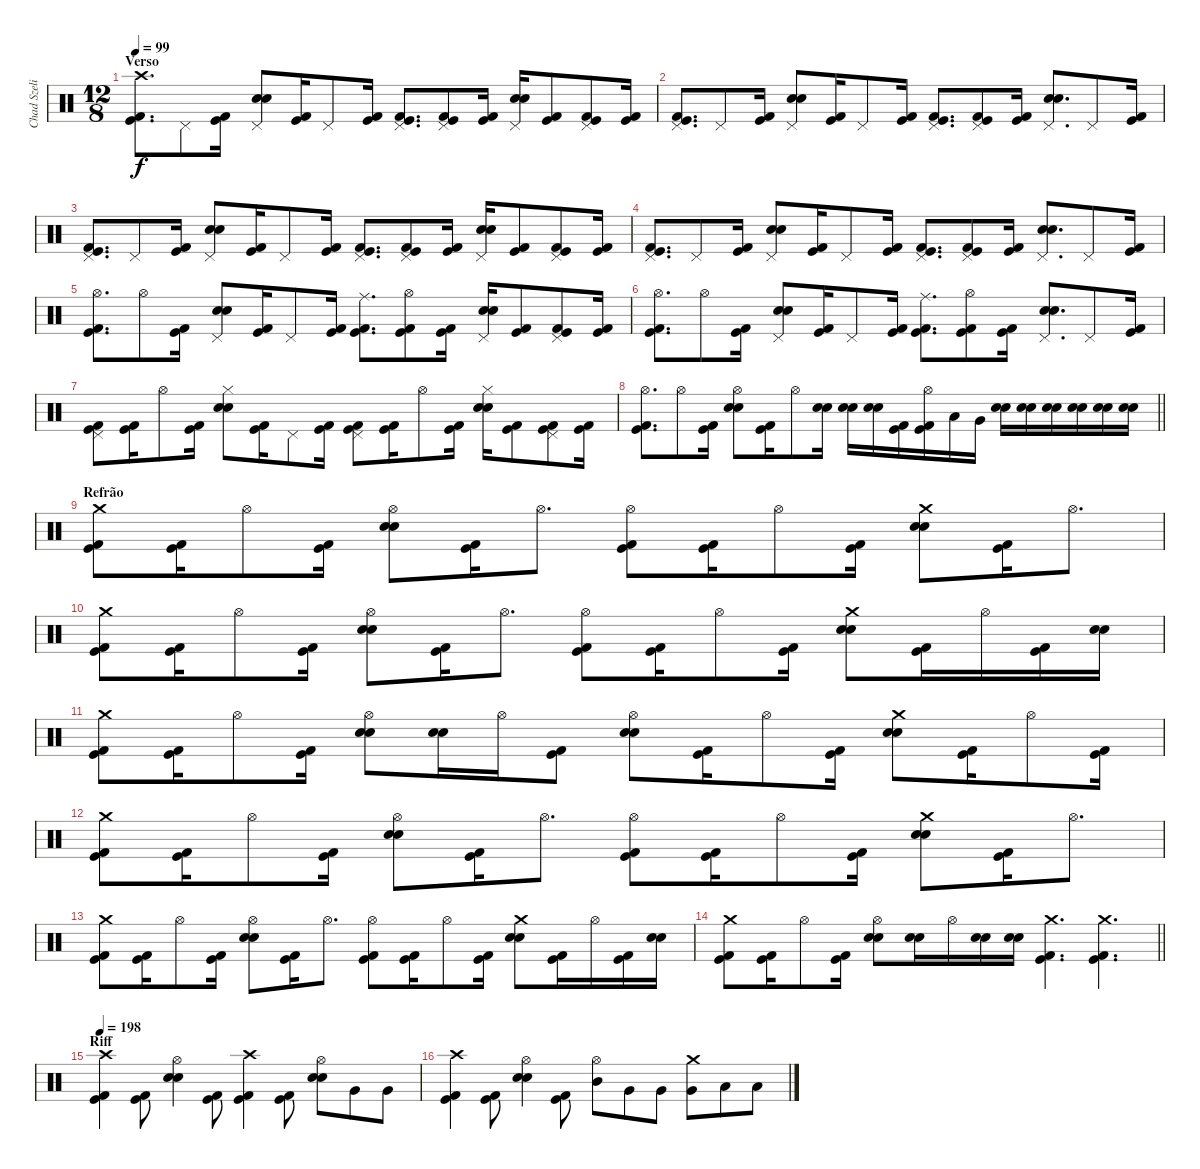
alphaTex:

\track ("Chad Szeliga" "Chad Szeli") {instrument percussion}
\staff {score}
\articulation defaults
\ts (12 8)
\section ("" "Verso")
\tempo 99
\clef neutral
\ks c
("Crash high (hit)" "Kick (hit) 2" "Kick (hit)").8{d dy f} "Pedal Hi-Hat (hit)".8 ("Kick (hit) 2" "Kick (hit)").16 ("Snare (hit) 2" "Snare (hit) 2" "Pedal Hi-Hat (hit)").8 ("Kick (hit) 2" "Kick (hit)").16 "Pedal Hi-Hat (hit)".8 ("Kick (hit) 2" "Kick (hit)").16 ("Kick (hit) 2" "Kick (hit)" "Pedal Hi-Hat (hit)").8{d} ("Kick (hit) 2" "Kick (hit)" "Pedal Hi-Hat (hit)").8 ("Kick (hit) 2" "Kick (hit)").16 ("Snare (hit) 2" "Snare (hit) 2" "Pedal Hi-Hat (hit)").16 ("Kick (hit) 2" "Kick (hit)").8 ("Kick (hit) 2" "Kick (hit)" "Pedal Hi-Hat (hit)").8 ("Kick (hit) 2" "Kick (hit)").16 |
("Kick (hit) 2" "Kick (hit)" "Pedal Hi-Hat (hit)").8{d} "Pedal Hi-Hat (hit)".8 ("Kick (hit) 2" "Kick (hit)").16 ("Snare (hit) 2" "Snare (hit) 2" "Pedal Hi-Hat (hit)").8 ("Kick (hit) 2" "Kick (hit)").16 "Pedal Hi-Hat (hit)".8 ("Kick (hit) 2" "Kick (hit)").16 ("Kick (hit) 2" "Kick (hit)" "Pedal Hi-Hat (hit)").8{d} ("Kick (hit) 2" "Kick (hit)" "Pedal Hi-Hat (hit)").8 ("Kick (hit) 2" "Kick (hit)").16 ("Snare (hit) 2" "Snare (hit) 2" "Pedal Hi-Hat (hit)").8{d} "Pedal Hi-Hat (hit)".8 ("Kick (hit) 2" "Kick (hit)").16 |
("Kick (hit) 2" "Kick (hit)" "Pedal Hi-Hat (hit)").8{d} "Pedal Hi-Hat (hit)".8 ("Kick (hit) 2" "Kick (hit)").16 ("Snare (hit) 2" "Snare (hit) 2" "Pedal Hi-Hat (hit)").8 ("Kick (hit) 2" "Kick (hit)").16 "Pedal Hi-Hat (hit)".8 ("Kick (hit) 2" "Kick (hit)").16 ("Kick (hit) 2" "Kick (hit)" "Pedal Hi-Hat (hit)").8{d} ("Kick (hit) 2" "Kick (hit)" "Pedal Hi-Hat (hit)").8 ("Kick (hit) 2" "Kick (hit)").16 ("Snare (hit) 2" "Snare (hit) 2" "Pedal Hi-Hat (hit)").16 ("Kick (hit) 2" "Kick (hit)").8 ("Kick (hit) 2" "Kick (hit)" "Pedal Hi-Hat (hit)").8 ("Kick (hit) 2" "Kick (hit)").16 |
("Kick (hit) 2" "Kick (hit)" "Pedal Hi-Hat (hit)").8{d} "Pedal Hi-Hat (hit)".8 ("Kick (hit) 2" "Kick (hit)").16 ("Snare (hit) 2" "Snare (hit) 2" "Pedal Hi-Hat (hit)").8 ("Kick (hit) 2" "Kick (hit)").16 "Pedal Hi-Hat (hit)".8 ("Kick (hit) 2" "Kick (hit)").16 ("Kick (hit) 2" "Kick (hit)" "Pedal Hi-Hat (hit)").8{d} ("Kick (hit) 2" "Kick (hit)" "Pedal Hi-Hat (hit)").8 ("Kick (hit) 2" "Kick (hit)").16 ("Snare (hit) 2" "Snare (hit) 2" "Pedal Hi-Hat (hit)").8{d} "Pedal Hi-Hat (hit)".8 ("Kick (hit) 2" "Kick (hit)").16 |
("Kick (hit) 2" "Kick (hit)" "Hi-Hat (open)").8{d} "Hi-Hat (open)".8 ("Kick (hit) 2" "Kick (hit)").16 ("Snare (hit) 2" "Snare (hit) 2" "Pedal Hi-Hat (hit)").8 ("Kick (hit) 2" "Kick (hit)").16 "Pedal Hi-Hat (hit)".8 ("Kick (hit) 2" "Kick (hit)").16 ("Ride (middle)" "Kick (hit) 2" "Kick (hit)").8{d} ("Kick (hit) 2" "Kick (hit)" "Hi-Hat (open)").8 ("Kick (hit) 2" "Kick (hit)").16 ("Snare (hit) 2" "Snare (hit) 2" "Pedal Hi-Hat (hit)").16 ("Kick (hit) 2" "Kick (hit)").8 ("Kick (hit) 2" "Kick (hit)" "Pedal Hi-Hat (hit)").8 ("Kick (hit) 2" "Kick (hit)").16 |
("Kick (hit) 2" "Kick (hit)" "Hi-Hat (open)").8{d} "Hi-Hat (open)".8 ("Kick (hit) 2" "Kick (hit)").16 ("Snare (hit) 2" "Snare (hit) 2" "Pedal Hi-Hat (hit)").8 ("Kick (hit) 2" "Kick (hit)").16 "Pedal Hi-Hat (hit)".8 ("Kick (hit) 2" "Kick (hit)").16 ("Ride (middle)" "Kick (hit) 2" "Kick (hit)").8{d} ("Kick (hit) 2" "Kick (hit)" "Hi-Hat (open)").8 ("Kick (hit) 2" "Kick (hit)").16 ("Snare (hit) 2" "Snare (hit) 2" "Pedal Hi-Hat (hit)").8{d} "Pedal Hi-Hat (hit)".8 ("Kick (hit) 2" "Kick (hit)").16 |
("Kick (hit) 2" "Kick (hit)" "Pedal Hi-Hat (hit)").8 ("Kick (hit) 2" "Kick (hit)").16 "Hi-Hat (open)".8 ("Kick (hit) 2" "Kick (hit)").16 ("Snare (hit) 2" "Snare (hit) 2" "Hi-Hat (closed)").8 ("Kick (hit) 2" "Kick (hit)").16 "Pedal Hi-Hat (hit)".8 ("Kick (hit) 2" "Kick (hit)").16 ("Kick (hit) 2" "Kick (hit)" "Pedal Hi-Hat (hit)").8 ("Kick (hit) 2" "Kick (hit)").16 "Hi-Hat (open)".8 ("Kick (hit) 2" "Kick (hit)").16 ("Snare (hit) 2" "Snare (hit) 2" "Hi-Hat (closed)").16 ("Kick (hit) 2" "Kick (hit)").8 ("Kick (hit) 2" "Kick (hit)" "Pedal Hi-Hat (hit)").8 ("Kick (hit) 2" "Kick (hit)").16 |
\barLineRight lightlight
("Kick (hit) 2" "Kick (hit)" "Hi-Hat (open)").8{d} "Hi-Hat (open)".8 ("Kick (hit) 2" "Kick (hit)").16 ("Snare (hit) 2" "Snare (hit) 2" "Hi-Hat (open)").8 ("Kick (hit) 2" "Kick (hit)").16 "Hi-Hat (open)".8 ("Snare (hit) 2" "Snare (hit) 2").16 ("Snare (hit) 2" "Snare (hit) 2").16 ("Snare (hit) 2" "Snare (hit) 2").16 ("Kick (hit) 2" "Kick (hit)").16 ("Kick (hit) 2" "Kick (hit)" "Hi-Hat (open)").16 "Low Tom (hit)".16 "Very Low Tom (hit)".16 ("Snare (hit) 2" "Snare (hit) 2").16 ("Snare (hit) 2" "Snare (hit) 2").16 ("Snare (hit) 2" "Snare (hit) 2").16 ("Snare (hit) 2" "Snare (hit) 2").16 ("Snare (hit) 2" "Snare (hit) 2").16 ("Snare (hit) 2" "Snare (hit) 2").16 |
\section ("" "Refrão")
("Crash medium (hit)" "Kick (hit) 2" "Kick (hit)").8 ("Kick (hit) 2" "Kick (hit)").16 "Hi-Hat (open)".8 ("Kick (hit) 2" "Kick (hit)").16 ("Snare (hit) 2" "Snare (hit) 2" "Hi-Hat (open)").8 ("Kick (hit) 2" "Kick (hit)").16 "Hi-Hat (open)".8{d} ("Kick (hit) 2" "Kick (hit)" "Hi-Hat (open)").8 ("Kick (hit) 2" "Kick (hit)").16 "Hi-Hat (open)".8 ("Kick (hit) 2" "Kick (hit)").16 ("Crash medium (hit)" "Snare (hit) 2" "Snare (hit) 2").8 ("Kick (hit) 2" "Kick (hit)").16 "Hi-Hat (open)".8{d} |
("Crash medium (hit)" "Kick (hit) 2" "Kick (hit)").8 ("Kick (hit) 2" "Kick (hit)").16 "Hi-Hat (open)".8 ("Kick (hit) 2" "Kick (hit)").16 ("Snare (hit) 2" "Snare (hit) 2" "Hi-Hat (open)").8 ("Kick (hit) 2" "Kick (hit)").16 "Hi-Hat (open)".8{d} ("Kick (hit) 2" "Kick (hit)" "Hi-Hat (open)").8 ("Kick (hit) 2" "Kick (hit)").16 "Hi-Hat (open)".8 ("Kick (hit) 2" "Kick (hit)").16 ("Crash medium (hit)" "Snare (hit) 2" "Snare (hit) 2").8 ("Kick (hit) 2" "Kick (hit)").16 "Hi-Hat (open)".16 ("Kick (hit) 2" "Kick (hit)").16 ("Snare (hit) 2" "Snare (hit) 2").16 |
("Crash medium (hit)" "Kick (hit) 2" "Kick (hit)").8 ("Kick (hit) 2" "Kick (hit)").16 "Hi-Hat (open)".8 ("Kick (hit) 2" "Kick (hit)").16 ("Snare (hit) 2" "Snare (hit) 2" "Hi-Hat (open)").8 ("Snare (hit) 2" "Snare (hit) 2").16 "Hi-Hat (open)".16 ("Kick (hit) 2" "Kick (hit)").8 ("Snare (hit) 2" "Snare (hit) 2" "Hi-Hat (open)").8 ("Kick (hit) 2" "Kick (hit)").16 "Hi-Hat (open)".8 ("Kick (hit) 2" "Kick (hit)").16 ("Crash medium (hit)" "Snare (hit) 2" "Snare (hit) 2").8 ("Kick (hit) 2" "Kick (hit)").16 "Hi-Hat (open)".8 ("Kick (hit) 2" "Kick (hit)").16 |
("Crash medium (hit)" "Kick (hit) 2" "Kick (hit)").8 ("Kick (hit) 2" "Kick (hit)").16 "Hi-Hat (open)".8 ("Kick (hit) 2" "Kick (hit)").16 ("Snare (hit) 2" "Snare (hit) 2" "Hi-Hat (open)").8 ("Kick (hit) 2" "Kick (hit)").16 "Hi-Hat (open)".8{d} ("Kick (hit) 2" "Kick (hit)" "Hi-Hat (open)").8 ("Kick (hit) 2" "Kick (hit)").16 "Hi-Hat (open)".8 ("Kick (hit) 2" "Kick (hit)").16 ("Crash medium (hit)" "Snare (hit) 2" "Snare (hit) 2").8 ("Kick (hit) 2" "Kick (hit)").16 "Hi-Hat (open)".8{d} |
("Crash medium (hit)" "Kick (hit) 2" "Kick (hit)").8 ("Kick (hit) 2" "Kick (hit)").16 "Hi-Hat (open)".8 ("Kick (hit) 2" "Kick (hit)").16 ("Snare (hit) 2" "Snare (hit) 2" "Hi-Hat (open)").8 ("Kick (hit) 2" "Kick (hit)").16 "Hi-Hat (open)".8{d} ("Kick (hit) 2" "Kick (hit)" "Hi-Hat (open)").8 ("Kick (hit) 2" "Kick (hit)").16 "Hi-Hat (open)".8 ("Kick (hit) 2" "Kick (hit)").16 ("Crash medium (hit)" "Snare (hit) 2" "Snare (hit) 2").8 ("Kick (hit) 2" "Kick (hit)").16 "Hi-Hat (open)".16 ("Kick (hit) 2" "Kick (hit)").16 ("Snare (hit) 2" "Snare (hit) 2").16 |
\barLineRight lightlight
("Crash medium (hit)" "Kick (hit) 2" "Kick (hit)").8 ("Kick (hit) 2" "Kick (hit)").16 "Hi-Hat (open)".8 ("Kick (hit) 2" "Kick (hit)").16 ("Snare (hit) 2" "Snare (hit) 2" "Hi-Hat (open)").8 ("Snare (hit) 2" "Snare (hit) 2").16 "Hi-Hat (open)".16 ("Snare (hit) 2" "Snare (hit) 2").16 ("Snare (hit) 2" "Snare (hit) 2").16 ("Crash medium (hit)" "Kick (hit) 2" "Kick (hit)").4{d} ("Crash medium (hit)" "Kick (hit) 2" "Kick (hit)").4{d} |
\section ("" "Riff")
\tempo 198
("Crash high (hit)" "Kick (hit) 2" "Kick (hit)").4 ("Kick (hit) 2" "Kick (hit)").8{beam Down} ("Snare (hit) 2" "Snare (hit) 2" "Hi-Hat (open)").4 ("Kick (hit) 2" "Kick (hit)").8{beam Down} ("Crash high (hit)" "Kick (hit) 2" "Kick (hit)").4 ("Kick (hit) 2" "Kick (hit)").8{beam Down} ("Snare (hit) 2" "Snare (hit) 2" "Hi-Hat (open)").8 "Very Low Tom (hit)".8 "Very Low Tom (hit)".8 |
("Crash high (hit)" "Kick (hit) 2" "Kick (hit)").4 ("Kick (hit) 2" "Kick (hit)").8{beam Down} ("Snare (hit) 2" "Snare (hit) 2" "Hi-Hat (open)").4 ("Kick (hit) 2" "Kick (hit)").8{beam Down} ("Mid Tom (hit)" "Hi-Hat (open)").8 "Very Low Tom (hit)".8 "Very Low Tom (hit)".8 ("Crash medium (hit)" "Very Low Tom (hit)").8 "Low Tom (hit)".8 "Low Tom (hit)".8
